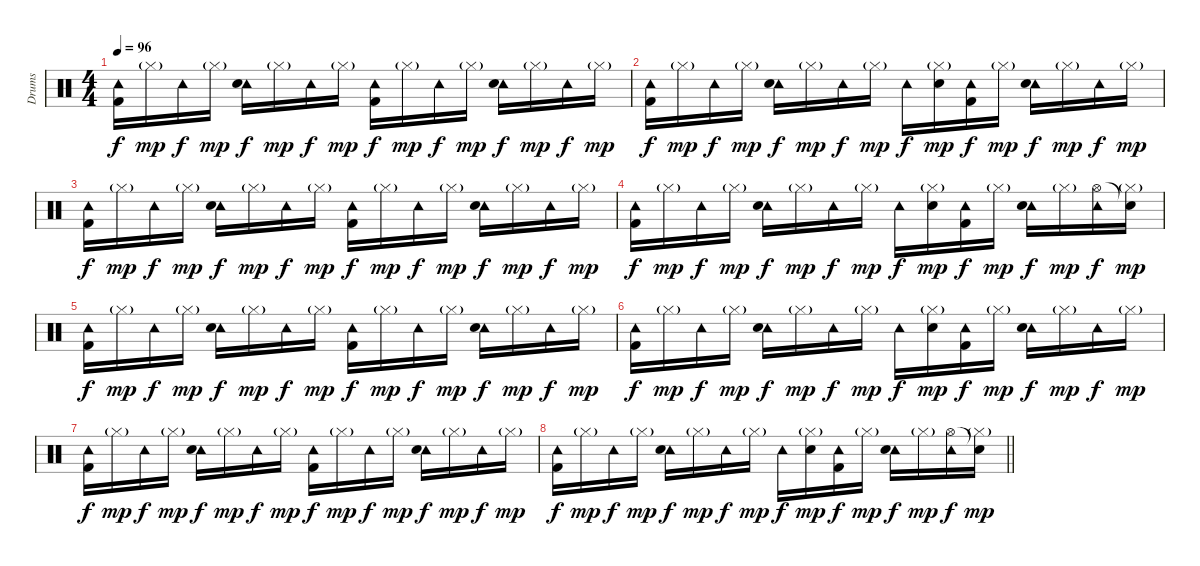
\track ("Drums" "Drums") {instrument percussion}
\staff {score}
\articulation defaults
\ts (4 4)
\tempo 96
\clef neutral
\ks c
("Tambourine (hit)" "Kick (hit) 2").16{dy f} "Hi-Hat (closed)"{g}.16{dy mp} "Tambourine (hit)".16{dy f} "Hi-Hat (closed)"{g}.16{dy mp} ("Tambourine (hit)" "Snare (hit) 2").16{dy f} "Hi-Hat (closed)"{g}.16{dy mp} "Tambourine (hit)".16{dy f} "Hi-Hat (closed)"{g}.16{dy mp} ("Tambourine (hit)" "Kick (hit) 2").16{dy f} "Hi-Hat (closed)"{g}.16{dy mp} "Tambourine (hit)".16{dy f} "Hi-Hat (closed)"{g}.16{dy mp} ("Tambourine (hit)" "Snare (hit) 2").16{dy f} "Hi-Hat (closed)"{g}.16{dy mp} "Tambourine (hit)".16{dy f} "Hi-Hat (closed)"{g}.16{dy mp} |
("Tambourine (hit)" "Kick (hit) 2").16{dy f} "Hi-Hat (closed)"{g}.16{dy mp} "Tambourine (hit)".16{dy f} "Hi-Hat (closed)"{g}.16{dy mp} ("Tambourine (hit)" "Snare (hit) 2").16{dy f} "Hi-Hat (closed)"{g}.16{dy mp} "Tambourine (hit)".16{dy f} "Hi-Hat (closed)"{g}.16{dy mp} "Tambourine (hit)".16{dy f} ("Hi-Hat (closed)"{g} "Snare (hit) 2").16{dy mp} ("Tambourine (hit)" "Kick (hit) 2").16{dy f} "Hi-Hat (closed)"{g}.16{dy mp} ("Tambourine (hit)" "Snare (hit) 2").16{dy f} "Hi-Hat (closed)"{g}.16{dy mp} "Tambourine (hit)".16{dy f} "Hi-Hat (closed)"{g}.16{dy mp} |
("Tambourine (hit)" "Kick (hit) 2").16{dy f} "Hi-Hat (closed)"{g}.16{dy mp} "Tambourine (hit)".16{dy f} "Hi-Hat (closed)"{g}.16{dy mp} ("Tambourine (hit)" "Snare (hit) 2").16{dy f} "Hi-Hat (closed)"{g}.16{dy mp} "Tambourine (hit)".16{dy f} "Hi-Hat (closed)"{g}.16{dy mp} ("Tambourine (hit)" "Kick (hit) 2").16{dy f} "Hi-Hat (closed)"{g}.16{dy mp} "Tambourine (hit)".16{dy f} "Hi-Hat (closed)"{g}.16{dy mp} ("Tambourine (hit)" "Snare (hit) 2").16{dy f} "Hi-Hat (closed)"{g}.16{dy mp} "Tambourine (hit)".16{dy f} "Hi-Hat (closed)"{g}.16{dy mp} |
("Tambourine (hit)" "Kick (hit) 2").16{dy f} "Hi-Hat (closed)"{g}.16{dy mp} "Tambourine (hit)".16{dy f} "Hi-Hat (closed)"{g}.16{dy mp} ("Tambourine (hit)" "Snare (hit) 2").16{dy f} "Hi-Hat (closed)"{g}.16{dy mp} "Tambourine (hit)".16{dy f} "Hi-Hat (closed)"{g}.16{dy mp} "Tambourine (hit)".16{dy f} ("Hi-Hat (closed)"{g} "Snare (hit) 2").16{dy mp} ("Tambourine (hit)" "Kick (hit) 2").16{dy f} "Hi-Hat (closed)"{g}.16{dy mp} ("Tambourine (hit)" "Snare (hit) 2").16{dy f} "Hi-Hat (closed)"{g}.16{dy mp} ("Tambourine (hit)" "Hi-Hat (open)").16{dy f} ("Hi-Hat (closed)"{g} "Snare (hit)"{t}).16{dy mp} |
("Tambourine (hit)" "Kick (hit) 2").16{dy f} "Hi-Hat (closed)"{g}.16{dy mp} "Tambourine (hit)".16{dy f} "Hi-Hat (closed)"{g}.16{dy mp} ("Tambourine (hit)" "Snare (hit) 2").16{dy f} "Hi-Hat (closed)"{g}.16{dy mp} "Tambourine (hit)".16{dy f} "Hi-Hat (closed)"{g}.16{dy mp} ("Tambourine (hit)" "Kick (hit) 2").16{dy f} "Hi-Hat (closed)"{g}.16{dy mp} "Tambourine (hit)".16{dy f} "Hi-Hat (closed)"{g}.16{dy mp} ("Tambourine (hit)" "Snare (hit) 2").16{dy f} "Hi-Hat (closed)"{g}.16{dy mp} "Tambourine (hit)".16{dy f} "Hi-Hat (closed)"{g}.16{dy mp} |
("Tambourine (hit)" "Kick (hit) 2").16{dy f} "Hi-Hat (closed)"{g}.16{dy mp} "Tambourine (hit)".16{dy f} "Hi-Hat (closed)"{g}.16{dy mp} ("Tambourine (hit)" "Snare (hit) 2").16{dy f} "Hi-Hat (closed)"{g}.16{dy mp} "Tambourine (hit)".16{dy f} "Hi-Hat (closed)"{g}.16{dy mp} "Tambourine (hit)".16{dy f} ("Hi-Hat (closed)"{g} "Snare (hit) 2").16{dy mp} ("Tambourine (hit)" "Kick (hit) 2").16{dy f} "Hi-Hat (closed)"{g}.16{dy mp} ("Tambourine (hit)" "Snare (hit) 2").16{dy f} "Hi-Hat (closed)"{g}.16{dy mp} "Tambourine (hit)".16{dy f} "Hi-Hat (closed)"{g}.16{dy mp} |
("Tambourine (hit)" "Kick (hit) 2").16{dy f} "Hi-Hat (closed)"{g}.16{dy mp} "Tambourine (hit)".16{dy f} "Hi-Hat (closed)"{g}.16{dy mp} ("Tambourine (hit)" "Snare (hit) 2").16{dy f} "Hi-Hat (closed)"{g}.16{dy mp} "Tambourine (hit)".16{dy f} "Hi-Hat (closed)"{g}.16{dy mp} ("Tambourine (hit)" "Kick (hit) 2").16{dy f} "Hi-Hat (closed)"{g}.16{dy mp} "Tambourine (hit)".16{dy f} "Hi-Hat (closed)"{g}.16{dy mp} ("Tambourine (hit)" "Snare (hit) 2").16{dy f} "Hi-Hat (closed)"{g}.16{dy mp} "Tambourine (hit)".16{dy f} "Hi-Hat (closed)"{g}.16{dy mp} |
\barLineRight lightlight
("Tambourine (hit)" "Kick (hit) 2").16{dy f} "Hi-Hat (closed)"{g}.16{dy mp} "Tambourine (hit)".16{dy f} "Hi-Hat (closed)"{g}.16{dy mp} ("Tambourine (hit)" "Snare (hit) 2").16{dy f} "Hi-Hat (closed)"{g}.16{dy mp} "Tambourine (hit)".16{dy f} "Hi-Hat (closed)"{g}.16{dy mp} "Tambourine (hit)".16{dy f} ("Hi-Hat (closed)"{g} "Snare (hit) 2").16{dy mp} ("Tambourine (hit)" "Kick (hit) 2").16{dy f} "Hi-Hat (closed)"{g}.16{dy mp} ("Tambourine (hit)" "Snare (hit) 2").16{dy f} "Hi-Hat (closed)"{g}.16{dy mp} ("Tambourine (hit)" "Hi-Hat (open)").16{dy f} ("Hi-Hat (closed)"{g} "Snare (hit)"{t}).16{dy mp}
